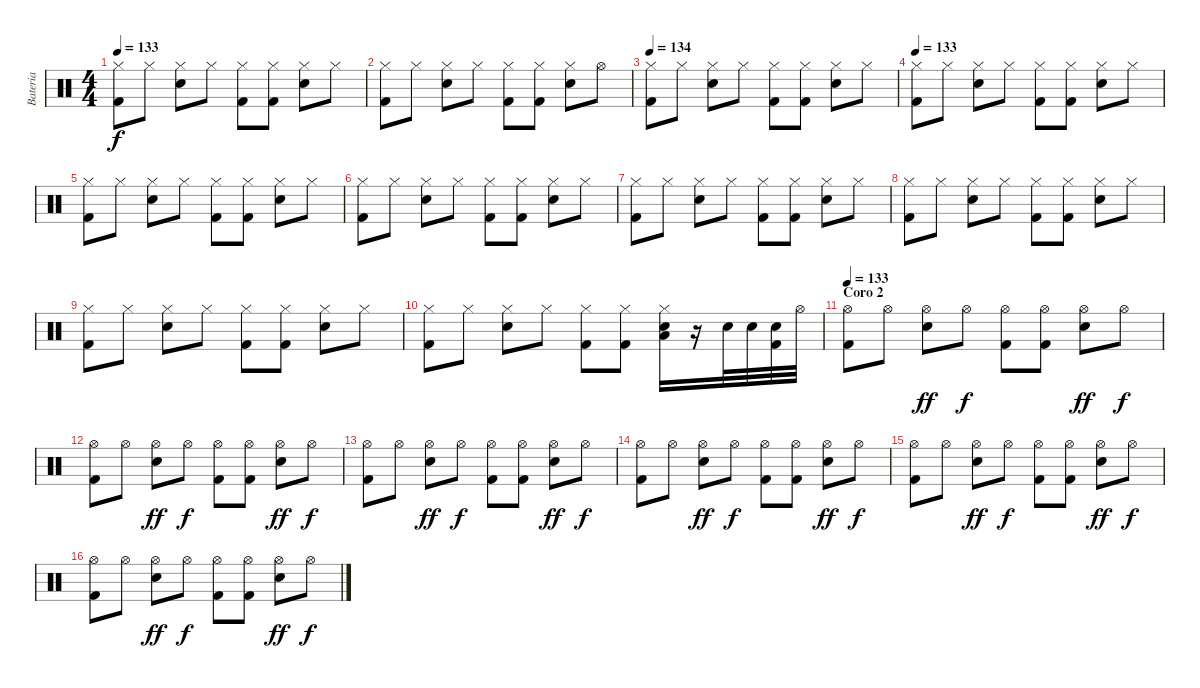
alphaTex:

\track ("Bateria" "Bateria") {instrument percussion}
\staff {score}
\articulation defaults
\ts (4 4)
\tempo 133
\clef neutral
\ks c
("Hi-Hat (closed)" "Kick (hit) 2").8{dy f} "Hi-Hat (closed)".8 ("Hi-Hat (closed)" "Snare (hit) 2").8 "Hi-Hat (closed)".8 ("Hi-Hat (closed)" "Kick (hit) 2").8 ("Hi-Hat (closed)" "Kick (hit) 2").8 ("Hi-Hat (closed)" "Snare (hit) 2").8 "Hi-Hat (closed)".8 |
("Hi-Hat (closed)" "Kick (hit) 2").8 "Hi-Hat (closed)".8 ("Hi-Hat (closed)" "Snare (hit) 2").8 "Hi-Hat (closed)".8 ("Hi-Hat (closed)" "Kick (hit) 2").8 ("Hi-Hat (closed)" "Kick (hit) 2").8 ("Hi-Hat (closed)" "Snare (hit) 2").8 "Hi-Hat (open)".8 |
\tempo 134
("Hi-Hat (closed)" "Kick (hit) 2").8 "Hi-Hat (closed)".8 ("Hi-Hat (closed)" "Snare (hit) 2").8 "Hi-Hat (closed)".8 ("Hi-Hat (closed)" "Kick (hit) 2").8 ("Hi-Hat (closed)" "Kick (hit) 2").8 ("Hi-Hat (closed)" "Snare (hit) 2").8 "Hi-Hat (closed)".8 |
\tempo 133
("Hi-Hat (closed)" "Kick (hit) 2").8 "Hi-Hat (closed)".8 ("Hi-Hat (closed)" "Snare (hit) 2").8 "Hi-Hat (closed)".8 ("Hi-Hat (closed)" "Kick (hit) 2").8 ("Hi-Hat (closed)" "Kick (hit) 2").8 ("Hi-Hat (closed)" "Snare (hit) 2").8 "Hi-Hat (closed)".8 |
("Hi-Hat (closed)" "Kick (hit) 2").8 "Hi-Hat (closed)".8 ("Hi-Hat (closed)" "Snare (hit) 2").8 "Hi-Hat (closed)".8 ("Hi-Hat (closed)" "Kick (hit) 2").8 ("Hi-Hat (closed)" "Kick (hit) 2").8 ("Hi-Hat (closed)" "Snare (hit) 2").8 "Hi-Hat (closed)".8 |
("Hi-Hat (closed)" "Kick (hit) 2").8 "Hi-Hat (closed)".8 ("Hi-Hat (closed)" "Snare (hit) 2").8 "Hi-Hat (closed)".8 ("Hi-Hat (closed)" "Kick (hit) 2").8 ("Hi-Hat (closed)" "Kick (hit) 2").8 ("Hi-Hat (closed)" "Snare (hit) 2").8 "Hi-Hat (closed)".8 |
("Hi-Hat (closed)" "Kick (hit) 2").8 "Hi-Hat (closed)".8 ("Hi-Hat (closed)" "Snare (hit) 2").8 "Hi-Hat (closed)".8 ("Hi-Hat (closed)" "Kick (hit) 2").8 ("Hi-Hat (closed)" "Kick (hit) 2").8 ("Hi-Hat (closed)" "Snare (hit) 2").8 "Hi-Hat (closed)".8 |
("Hi-Hat (closed)" "Kick (hit) 2").8 "Hi-Hat (closed)".8 ("Hi-Hat (closed)" "Snare (hit) 2").8 "Hi-Hat (closed)".8 ("Hi-Hat (closed)" "Kick (hit) 2").8 ("Hi-Hat (closed)" "Kick (hit) 2").8 ("Hi-Hat (closed)" "Snare (hit) 2").8 "Hi-Hat (closed)".8 |
("Hi-Hat (closed)" "Kick (hit) 2").8 "Hi-Hat (closed)".8 ("Hi-Hat (closed)" "Snare (hit) 2").8 "Hi-Hat (closed)".8 ("Hi-Hat (closed)" "Kick (hit) 2").8 ("Hi-Hat (closed)" "Kick (hit) 2").8 ("Hi-Hat (closed)" "Snare (hit) 2").8 "Hi-Hat (closed)".8 |
("Hi-Hat (closed)" "Kick (hit) 2").8 "Hi-Hat (closed)".8 ("Hi-Hat (closed)" "Snare (hit) 2").8 "Hi-Hat (closed)".8 ("Hi-Hat (closed)" "Kick (hit) 2").8 ("Hi-Hat (closed)" "Kick (hit) 2").8 ("Hi-Hat (closed)" "Snare (hit) 2" "Low Tom (hit)").16 r.16 "Snare (hit) 2".32 "Snare (hit) 2".32 ("Snare (hit) 2" "Kick (hit) 2").32 "Hi-Hat (open)".32 |
\section ("" "Coro 2")
\tempo 133
("Hi-Hat (open)" "Kick (hit) 2").8 "Hi-Hat (open)".8 ("Hi-Hat (open)" "Snare (hit) 2").8{dy ff} "Hi-Hat (open)".8{dy f} ("Hi-Hat (open)" "Kick (hit) 2").8 ("Hi-Hat (open)" "Kick (hit) 2").8 ("Hi-Hat (open)" "Snare (hit) 2").8{dy ff} "Hi-Hat (open)".8{dy f} |
("Hi-Hat (open)" "Kick (hit) 2").8 "Hi-Hat (open)".8 ("Hi-Hat (open)" "Snare (hit) 2").8{dy ff} "Hi-Hat (open)".8{dy f} ("Hi-Hat (open)" "Kick (hit) 2").8 ("Hi-Hat (open)" "Kick (hit) 2").8 ("Hi-Hat (open)" "Snare (hit) 2").8{dy ff} "Hi-Hat (open)".8{dy f} |
("Hi-Hat (open)" "Kick (hit) 2").8 "Hi-Hat (open)".8 ("Hi-Hat (open)" "Snare (hit) 2").8{dy ff} "Hi-Hat (open)".8{dy f} ("Hi-Hat (open)" "Kick (hit) 2").8 ("Hi-Hat (open)" "Kick (hit) 2").8 ("Hi-Hat (open)" "Snare (hit) 2").8{dy ff} "Hi-Hat (open)".8{dy f} |
("Hi-Hat (open)" "Kick (hit) 2").8 "Hi-Hat (open)".8 ("Hi-Hat (open)" "Snare (hit) 2").8{dy ff} "Hi-Hat (open)".8{dy f} ("Hi-Hat (open)" "Kick (hit) 2").8 ("Hi-Hat (open)" "Kick (hit) 2").8 ("Hi-Hat (open)" "Snare (hit) 2").8{dy ff} "Hi-Hat (open)".8{dy f} |
("Hi-Hat (open)" "Kick (hit) 2").8 "Hi-Hat (open)".8 ("Hi-Hat (open)" "Snare (hit) 2").8{dy ff} "Hi-Hat (open)".8{dy f} ("Hi-Hat (open)" "Kick (hit) 2").8 ("Hi-Hat (open)" "Kick (hit) 2").8 ("Hi-Hat (open)" "Snare (hit) 2").8{dy ff} "Hi-Hat (open)".8{dy f} |
("Hi-Hat (open)" "Kick (hit) 2").8 "Hi-Hat (open)".8 ("Hi-Hat (open)" "Snare (hit) 2").8{dy ff} "Hi-Hat (open)".8{dy f} ("Hi-Hat (open)" "Kick (hit) 2").8 ("Hi-Hat (open)" "Kick (hit) 2").8 ("Hi-Hat (open)" "Snare (hit) 2").8{dy ff} "Hi-Hat (open)".8{dy f}
